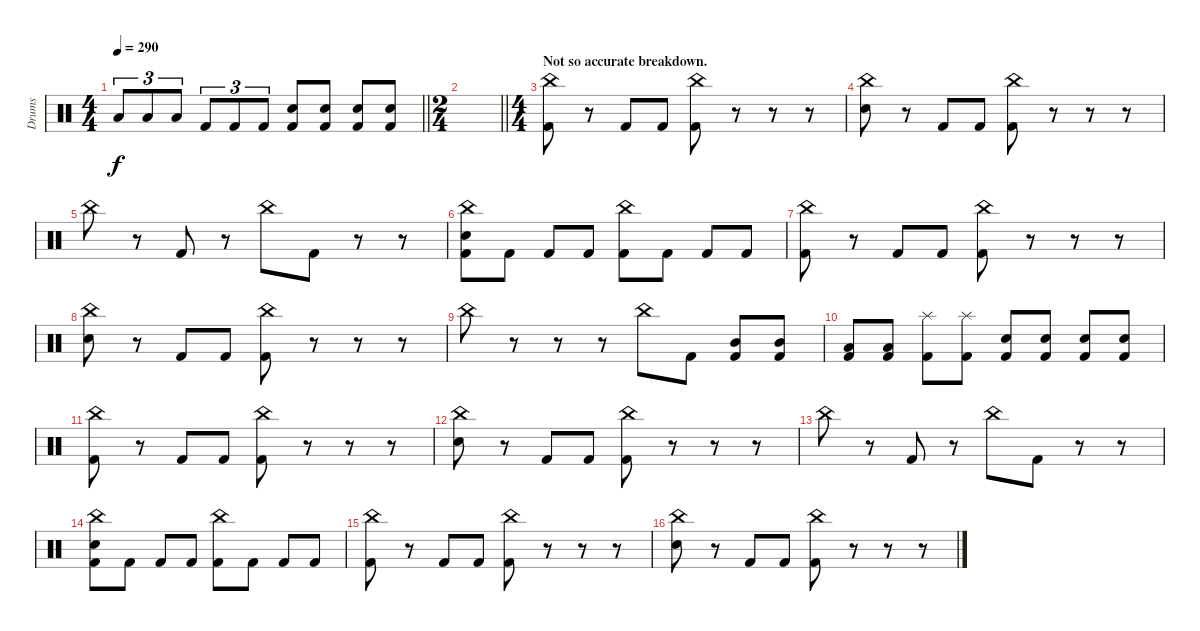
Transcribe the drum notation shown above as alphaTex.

\track ("Drums" "Drums") {instrument percussion}
\staff {score}
\articulation defaults
\ts (4 4)
\tempo 290
\clef neutral
\barLineRight lightlight
\ks c "Low Floor Tom (hit)".8{tu (3 2) dy f} "Low Floor Tom (hit)".8{tu (3 2)} "Low Floor Tom (hit)".8{tu (3 2)} "Kick (hit) 2".8{tu (3 2)} "Kick (hit) 2".8{tu (3 2)} "Kick (hit) 2".8{tu (3 2)}
("Snare (hit) 2" "Kick (hit) 2").8 ("Snare (hit) 2" "Kick (hit) 2").8 ("Snare (hit) 2" "Kick (hit) 2").8 ("Snare (hit) 2" "Kick (hit) 2").8 |
\ts (2 4)
\barLineRight lightlight
|
\ts (4 4)
\section ("" "Not so accurate breakdown.")
("China (hit)" "Kick (hit) 2").8 r.8 "Kick (hit) 2".8 "Kick (hit) 2".8 ("China (hit)" "Kick (hit) 2").8 r.8 r.8 r.8 |
("China (hit)" "Snare (hit) 2").8 r.8 "Kick (hit) 2".8 "Kick (hit) 2".8 ("China (hit)" "Kick (hit) 2").8 r.8 r.8 r.8 |
"China (hit)".8 r.8 "Kick (hit) 2".8 r.8 "China (hit)".8 "Kick (hit) 2".8 r.8 r.8 |
("China (hit)" "Snare (hit) 2" "Kick (hit) 2").8 "Kick (hit) 2".8 "Kick (hit) 2".8 "Kick (hit) 2".8 ("China (hit)" "Kick (hit) 2").8 "Kick (hit) 2".8 "Kick (hit) 2".8 "Kick (hit) 2".8 |
("China (hit)" "Kick (hit) 2").8 r.8 "Kick (hit) 2".8 "Kick (hit) 2".8 ("China (hit)" "Kick (hit) 2").8 r.8 r.8 r.8 |
("China (hit)" "Snare (hit) 2").8 r.8 "Kick (hit) 2".8 "Kick (hit) 2".8 ("China (hit)" "Kick (hit) 2").8 r.8 r.8 r.8 |
"China (hit)".8 r.8 r.8 r.8 "China (hit)".8 "Kick (hit) 2".8 ("Mid Tom (hit)" "Kick (hit) 2").8 ("Mid Tom (hit)" "Kick (hit) 2").8 |
("Low Tom (hit)" "Kick (hit) 2").8 ("Low Tom (hit)" "Kick (hit) 2").8 ("Splash (hit)" "Kick (hit) 2").8 ("Splash (hit)" "Kick (hit) 2").8 ("Snare (hit) 2" "Kick (hit) 2").8 ("Snare (hit) 2" "Kick (hit) 2").8 ("Snare (hit) 2" "Kick (hit) 2").8 ("Snare (hit) 2" "Kick (hit) 2").8 |
("China (hit)" "Kick (hit) 2").8 r.8 "Kick (hit) 2".8 "Kick (hit) 2".8 ("China (hit)" "Kick (hit) 2").8 r.8 r.8 r.8 |
("China (hit)" "Snare (hit) 2").8 r.8 "Kick (hit) 2".8 "Kick (hit) 2".8 ("China (hit)" "Kick (hit) 2").8 r.8 r.8 r.8 |
"China (hit)".8 r.8 "Kick (hit) 2".8 r.8 "China (hit)".8 "Kick (hit) 2".8 r.8 r.8 |
("China (hit)" "Snare (hit) 2" "Kick (hit) 2").8 "Kick (hit) 2".8 "Kick (hit) 2".8 "Kick (hit) 2".8 ("China (hit)" "Kick (hit) 2").8 "Kick (hit) 2".8 "Kick (hit) 2".8 "Kick (hit) 2".8 |
("China (hit)" "Kick (hit) 2").8 r.8 "Kick (hit) 2".8 "Kick (hit) 2".8 ("China (hit)" "Kick (hit) 2").8 r.8 r.8 r.8 |
("China (hit)" "Snare (hit) 2").8 r.8 "Kick (hit) 2".8 "Kick (hit) 2".8 ("China (hit)" "Kick (hit) 2").8 r.8 r.8 r.8
